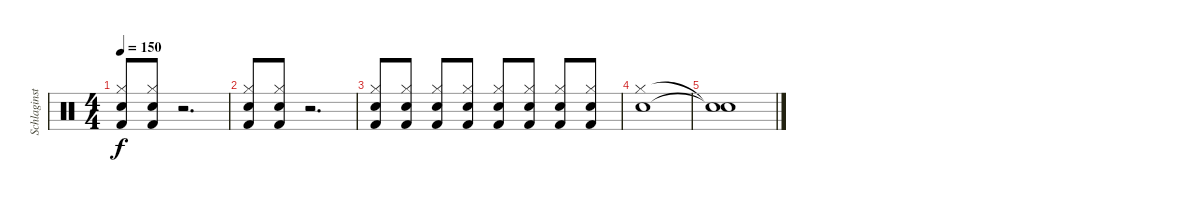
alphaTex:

\track ("Schlaginstrumente - Auswahl" "Schlaginst") {instrument percussion}
\staff {score}
\articulation defaults
\ts (4 4)
\tempo 150
\clef neutral
\ks c
("Snare (hit) 2" "Hi-Hat (closed)" "Kick (hit) 2").8{dy f} ("Snare (hit) 2" "Hi-Hat (closed)" "Kick (hit) 2").8 r.2{d} |
("Snare (hit) 2" "Hi-Hat (closed)" "Kick (hit) 2").8 ("Snare (hit) 2" "Hi-Hat (closed)" "Kick (hit) 2").8 r.2{d} |
("Snare (hit) 2" "Hi-Hat (closed)" "Kick (hit) 2").8 ("Snare (hit) 2" "Hi-Hat (closed)" "Kick (hit) 2").8 ("Snare (hit) 2" "Hi-Hat (closed)" "Kick (hit) 2").8 ("Snare (hit) 2" "Hi-Hat (closed)" "Kick (hit) 2").8 ("Snare (hit) 2" "Hi-Hat (closed)" "Kick (hit) 2").8 ("Snare (hit) 2" "Hi-Hat (closed)" "Kick (hit) 2").8 ("Snare (hit) 2" "Hi-Hat (closed)" "Kick (hit) 2").8 ("Snare (hit) 2" "Hi-Hat (closed)" "Kick (hit) 2").8 |
("Snare (hit) 2" "Hi-Hat (closed)").1 |
("Snare (hit)"{t} "Snare (hit)"{t}).1
